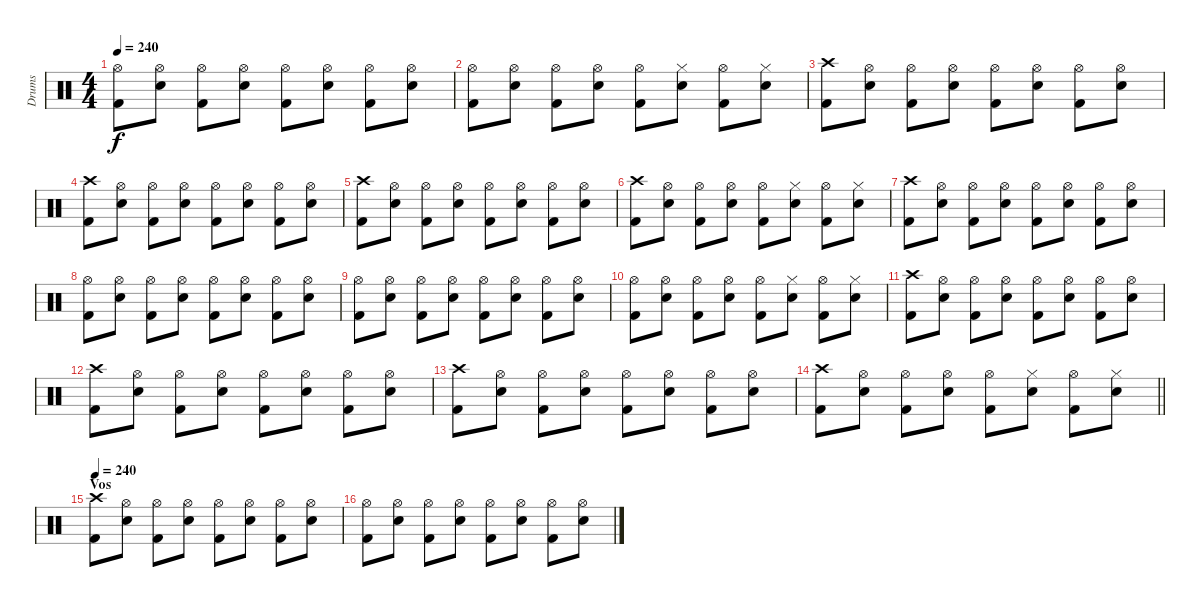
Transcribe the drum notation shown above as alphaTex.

\track ("Drums" "Drums") {instrument percussion}
\staff {score}
\articulation defaults
\ts (4 4)
\tempo 240
\clef neutral
\ks c
("Hi-Hat (open)" "Kick (hit) 2").8{dy f} ("Hi-Hat (open)" "Snare (hit) 2").8 ("Hi-Hat (open)" "Kick (hit) 2").8 ("Hi-Hat (open)" "Snare (hit) 2").8 ("Hi-Hat (open)" "Kick (hit) 2").8 ("Hi-Hat (open)" "Snare (hit) 2").8 ("Hi-Hat (open)" "Kick (hit) 2").8 ("Hi-Hat (open)" "Snare (hit) 2").8 |
("Hi-Hat (open)" "Kick (hit) 2").8 ("Hi-Hat (open)" "Snare (hit) 2").8 ("Hi-Hat (open)" "Kick (hit) 2").8 ("Hi-Hat (open)" "Snare (hit) 2").8 ("Hi-Hat (open)" "Kick (hit) 2").8 ("Hi-Hat (closed)" "Snare (hit) 2").8 ("Hi-Hat (open)" "Kick (hit) 2").8 ("Hi-Hat (closed)" "Snare (hit) 2").8 |
("Crash high (hit)" "Kick (hit) 2").8 ("Hi-Hat (open)" "Snare (hit) 2").8 ("Hi-Hat (open)" "Kick (hit) 2").8 ("Hi-Hat (open)" "Snare (hit) 2").8 ("Hi-Hat (open)" "Kick (hit) 2").8 ("Hi-Hat (open)" "Snare (hit) 2").8 ("Hi-Hat (open)" "Kick (hit) 2").8 ("Hi-Hat (open)" "Snare (hit) 2").8 |
("Crash high (hit)" "Kick (hit) 2").8 ("Hi-Hat (open)" "Snare (hit) 2").8 ("Hi-Hat (open)" "Kick (hit) 2").8 ("Hi-Hat (open)" "Snare (hit) 2").8 ("Hi-Hat (open)" "Kick (hit) 2").8 ("Hi-Hat (open)" "Snare (hit) 2").8 ("Hi-Hat (open)" "Kick (hit) 2").8 ("Hi-Hat (open)" "Snare (hit) 2").8 |
("Crash high (hit)" "Kick (hit) 2").8 ("Hi-Hat (open)" "Snare (hit) 2").8 ("Hi-Hat (open)" "Kick (hit) 2").8 ("Hi-Hat (open)" "Snare (hit) 2").8 ("Hi-Hat (open)" "Kick (hit) 2").8 ("Hi-Hat (open)" "Snare (hit) 2").8 ("Hi-Hat (open)" "Kick (hit) 2").8 ("Hi-Hat (open)" "Snare (hit) 2").8 |
("Crash high (hit)" "Kick (hit) 2").8 ("Hi-Hat (open)" "Snare (hit) 2").8 ("Hi-Hat (open)" "Kick (hit) 2").8 ("Hi-Hat (open)" "Snare (hit) 2").8 ("Hi-Hat (open)" "Kick (hit) 2").8 ("Hi-Hat (closed)" "Snare (hit) 2").8 ("Hi-Hat (open)" "Kick (hit) 2").8 ("Hi-Hat (closed)" "Snare (hit) 2").8 |
("Crash high (hit)" "Kick (hit) 2").8 ("Hi-Hat (open)" "Snare (hit) 2").8 ("Hi-Hat (open)" "Kick (hit) 2").8 ("Hi-Hat (open)" "Snare (hit) 2").8 ("Hi-Hat (open)" "Kick (hit) 2").8 ("Hi-Hat (open)" "Snare (hit) 2").8 ("Hi-Hat (open)" "Kick (hit) 2").8 ("Hi-Hat (open)" "Snare (hit) 2").8 |
("Hi-Hat (open)" "Kick (hit) 2").8 ("Hi-Hat (open)" "Snare (hit) 2").8 ("Hi-Hat (open)" "Kick (hit) 2").8 ("Hi-Hat (open)" "Snare (hit) 2").8 ("Hi-Hat (open)" "Kick (hit) 2").8 ("Hi-Hat (open)" "Snare (hit) 2").8 ("Hi-Hat (open)" "Kick (hit) 2").8 ("Hi-Hat (open)" "Snare (hit) 2").8 |
("Hi-Hat (open)" "Kick (hit) 2").8 ("Hi-Hat (open)" "Snare (hit) 2").8 ("Hi-Hat (open)" "Kick (hit) 2").8 ("Hi-Hat (open)" "Snare (hit) 2").8 ("Hi-Hat (open)" "Kick (hit) 2").8 ("Hi-Hat (open)" "Snare (hit) 2").8 ("Hi-Hat (open)" "Kick (hit) 2").8 ("Hi-Hat (open)" "Snare (hit) 2").8 |
("Hi-Hat (open)" "Kick (hit) 2").8 ("Hi-Hat (open)" "Snare (hit) 2").8 ("Hi-Hat (open)" "Kick (hit) 2").8 ("Hi-Hat (open)" "Snare (hit) 2").8 ("Hi-Hat (open)" "Kick (hit) 2").8 ("Hi-Hat (closed)" "Snare (hit) 2").8 ("Hi-Hat (open)" "Kick (hit) 2").8 ("Hi-Hat (closed)" "Snare (hit) 2").8 |
("Crash high (hit)" "Kick (hit) 2").8 ("Hi-Hat (open)" "Snare (hit) 2").8 ("Hi-Hat (open)" "Kick (hit) 2").8 ("Hi-Hat (open)" "Snare (hit) 2").8 ("Hi-Hat (open)" "Kick (hit) 2").8 ("Hi-Hat (open)" "Snare (hit) 2").8 ("Hi-Hat (open)" "Kick (hit) 2").8 ("Hi-Hat (open)" "Snare (hit) 2").8 |
("Crash high (hit)" "Kick (hit) 2").8 ("Hi-Hat (open)" "Snare (hit) 2").8 ("Hi-Hat (open)" "Kick (hit) 2").8 ("Hi-Hat (open)" "Snare (hit) 2").8 ("Hi-Hat (open)" "Kick (hit) 2").8 ("Hi-Hat (open)" "Snare (hit) 2").8 ("Hi-Hat (open)" "Kick (hit) 2").8 ("Hi-Hat (open)" "Snare (hit) 2").8 |
("Crash high (hit)" "Kick (hit) 2").8 ("Hi-Hat (open)" "Snare (hit) 2").8 ("Hi-Hat (open)" "Kick (hit) 2").8 ("Hi-Hat (open)" "Snare (hit) 2").8 ("Hi-Hat (open)" "Kick (hit) 2").8 ("Hi-Hat (open)" "Snare (hit) 2").8 ("Hi-Hat (open)" "Kick (hit) 2").8 ("Hi-Hat (open)" "Snare (hit) 2").8 |
\barLineRight lightlight
("Crash high (hit)" "Kick (hit) 2").8 ("Hi-Hat (open)" "Snare (hit) 2").8 ("Hi-Hat (open)" "Kick (hit) 2").8 ("Hi-Hat (open)" "Snare (hit) 2").8 ("Hi-Hat (open)" "Kick (hit) 2").8 ("Hi-Hat (closed)" "Snare (hit) 2").8 ("Hi-Hat (open)" "Kick (hit) 2").8 ("Hi-Hat (closed)" "Snare (hit) 2").8 |
\section ("" "Vos")
\tempo 240
("Crash high (hit)" "Kick (hit) 2").8 ("Hi-Hat (open)" "Snare (hit) 2").8 ("Hi-Hat (open)" "Kick (hit) 2").8 ("Hi-Hat (open)" "Snare (hit) 2").8 ("Hi-Hat (open)" "Kick (hit) 2").8 ("Hi-Hat (open)" "Snare (hit) 2").8 ("Hi-Hat (open)" "Kick (hit) 2").8 ("Hi-Hat (open)" "Snare (hit) 2").8 |
("Hi-Hat (open)" "Kick (hit) 2").8 ("Hi-Hat (open)" "Snare (hit) 2").8 ("Hi-Hat (open)" "Kick (hit) 2").8 ("Hi-Hat (open)" "Snare (hit) 2").8 ("Hi-Hat (open)" "Kick (hit) 2").8 ("Hi-Hat (open)" "Snare (hit) 2").8 ("Hi-Hat (open)" "Kick (hit) 2").8 ("Hi-Hat (open)" "Snare (hit) 2").8
